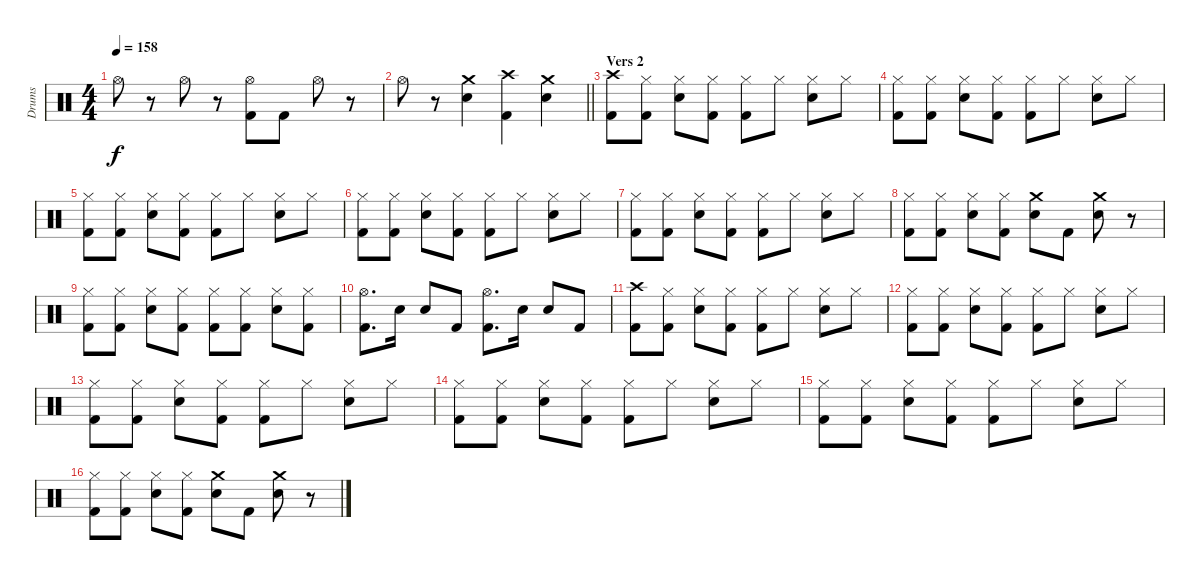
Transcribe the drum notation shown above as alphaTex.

\track ("Drums" "Drums") {instrument percussion}
\staff {score}
\articulation defaults
\ts (4 4)
\tempo 158
\clef neutral
\ks c "Hi-Hat (open)".8{dy f}
r.8 "Hi-Hat (open)".8 r.8 ("Hi-Hat (open)" "Kick (hit) 2").8 "Kick (hit) 2".8 "Hi-Hat (open)".8 r.8 |
\barLineRight lightlight "Hi-Hat (open)".8
r.8 ("Crash medium (hit)" "Electric Snare (hit)").4 ("Crash high (hit)" "Kick (hit) 2").4 ("Crash medium (hit)" "Electric Snare (hit)").4 |
\section ("" "Vers 2")
("Crash high (hit)" "Kick (hit) 2").8 ("Hi-Hat (closed)" "Kick (hit) 2").8 ("Hi-Hat (closed)" "Electric Snare (hit)").8 ("Hi-Hat (closed)" "Kick (hit) 2").8 ("Hi-Hat (closed)" "Kick (hit) 2").8 "Hi-Hat (closed)".8 ("Hi-Hat (closed)" "Electric Snare (hit)").8 "Hi-Hat (closed)".8 |
("Hi-Hat (closed)" "Kick (hit) 2").8 ("Hi-Hat (closed)" "Kick (hit) 2").8 ("Hi-Hat (closed)" "Electric Snare (hit)").8 ("Hi-Hat (closed)" "Kick (hit) 2").8 ("Hi-Hat (closed)" "Kick (hit) 2").8 "Hi-Hat (closed)".8 ("Hi-Hat (closed)" "Electric Snare (hit)").8 "Hi-Hat (closed)".8 |
("Hi-Hat (closed)" "Kick (hit) 2").8 ("Hi-Hat (closed)" "Kick (hit) 2").8 ("Hi-Hat (closed)" "Electric Snare (hit)").8 ("Hi-Hat (closed)" "Kick (hit) 2").8 ("Hi-Hat (closed)" "Kick (hit) 2").8 "Hi-Hat (closed)".8 ("Hi-Hat (closed)" "Electric Snare (hit)").8 "Hi-Hat (closed)".8 |
("Hi-Hat (closed)" "Kick (hit) 2").8 ("Hi-Hat (closed)" "Kick (hit) 2").8 ("Hi-Hat (closed)" "Electric Snare (hit)").8 ("Hi-Hat (closed)" "Kick (hit) 2").8 ("Hi-Hat (closed)" "Kick (hit) 2").8 "Hi-Hat (closed)".8 ("Hi-Hat (closed)" "Electric Snare (hit)").8 "Hi-Hat (closed)".8 |
("Hi-Hat (closed)" "Kick (hit) 2").8 ("Hi-Hat (closed)" "Kick (hit) 2").8 ("Hi-Hat (closed)" "Electric Snare (hit)").8 ("Hi-Hat (closed)" "Kick (hit) 2").8 ("Hi-Hat (closed)" "Kick (hit) 2").8 "Hi-Hat (closed)".8 ("Hi-Hat (closed)" "Electric Snare (hit)").8 "Hi-Hat (closed)".8 |
("Hi-Hat (closed)" "Kick (hit) 2").8 ("Hi-Hat (closed)" "Kick (hit) 2").8 ("Hi-Hat (closed)" "Electric Snare (hit)").8 ("Hi-Hat (closed)" "Kick (hit) 2").8 ("Crash medium (hit)" "Electric Snare (hit)").8 "Kick (hit) 2".8 ("Crash medium (hit)" "Electric Snare (hit)").8 r.8 |
("Hi-Hat (closed)" "Kick (hit) 2").8 ("Hi-Hat (closed)" "Kick (hit) 2").8 ("Hi-Hat (closed)" "Electric Snare (hit)").8 ("Hi-Hat (closed)" "Kick (hit) 2").8 ("Hi-Hat (closed)" "Kick (hit) 2").8 ("Hi-Hat (closed)" "Kick (hit) 2").8 ("Hi-Hat (closed)" "Electric Snare (hit)").8 ("Hi-Hat (closed)" "Kick (hit) 2").8 |
("Hi-Hat (open)" "Kick (hit) 2").8{d} "Electric Snare (hit)".16 "Electric Snare (hit)".8 "Kick (hit) 2".8 ("Hi-Hat (open)" "Kick (hit) 2").8{d} "Electric Snare (hit)".16 "Electric Snare (hit)".8 "Kick (hit) 2".8 |
("Crash high (hit)" "Kick (hit) 2").8 ("Hi-Hat (closed)" "Kick (hit) 2").8 ("Hi-Hat (closed)" "Electric Snare (hit)").8 ("Hi-Hat (closed)" "Kick (hit) 2").8 ("Hi-Hat (closed)" "Kick (hit) 2").8 "Hi-Hat (closed)".8 ("Hi-Hat (closed)" "Electric Snare (hit)").8 "Hi-Hat (closed)".8 |
("Hi-Hat (closed)" "Kick (hit) 2").8 ("Hi-Hat (closed)" "Kick (hit) 2").8 ("Hi-Hat (closed)" "Electric Snare (hit)").8 ("Hi-Hat (closed)" "Kick (hit) 2").8 ("Hi-Hat (closed)" "Kick (hit) 2").8 "Hi-Hat (closed)".8 ("Hi-Hat (closed)" "Electric Snare (hit)").8 "Hi-Hat (closed)".8 |
("Hi-Hat (closed)" "Kick (hit) 2").8 ("Hi-Hat (closed)" "Kick (hit) 2").8 ("Hi-Hat (closed)" "Electric Snare (hit)").8 ("Hi-Hat (closed)" "Kick (hit) 2").8 ("Hi-Hat (closed)" "Kick (hit) 2").8 "Hi-Hat (closed)".8 ("Hi-Hat (closed)" "Electric Snare (hit)").8 "Hi-Hat (closed)".8 |
("Hi-Hat (closed)" "Kick (hit) 2").8 ("Hi-Hat (closed)" "Kick (hit) 2").8 ("Hi-Hat (closed)" "Electric Snare (hit)").8 ("Hi-Hat (closed)" "Kick (hit) 2").8 ("Hi-Hat (closed)" "Kick (hit) 2").8 "Hi-Hat (closed)".8 ("Hi-Hat (closed)" "Electric Snare (hit)").8 "Hi-Hat (closed)".8 |
("Hi-Hat (closed)" "Kick (hit) 2").8 ("Hi-Hat (closed)" "Kick (hit) 2").8 ("Hi-Hat (closed)" "Electric Snare (hit)").8 ("Hi-Hat (closed)" "Kick (hit) 2").8 ("Hi-Hat (closed)" "Kick (hit) 2").8 "Hi-Hat (closed)".8 ("Hi-Hat (closed)" "Electric Snare (hit)").8 "Hi-Hat (closed)".8 |
("Hi-Hat (closed)" "Kick (hit) 2").8 ("Hi-Hat (closed)" "Kick (hit) 2").8 ("Hi-Hat (closed)" "Electric Snare (hit)").8 ("Hi-Hat (closed)" "Kick (hit) 2").8 ("Crash medium (hit)" "Electric Snare (hit)").8 "Kick (hit) 2".8 ("Crash medium (hit)" "Electric Snare (hit)").8 r.8
